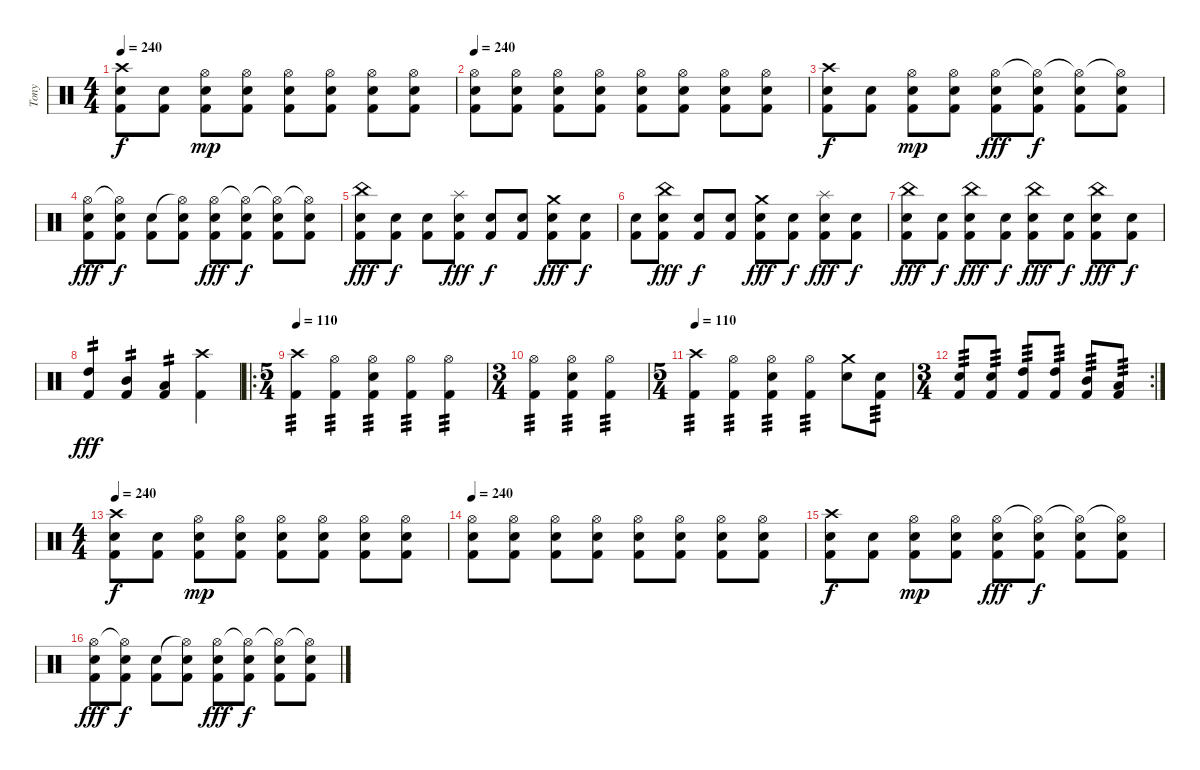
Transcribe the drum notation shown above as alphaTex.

\track ("Tony" "Tony") {instrument percussion}
\staff {score}
\articulation defaults
\ts (4 4)
\tempo 240
\clef neutral
\ks c
("Crash high (hit)" "Snare (hit) 2" "Kick (hit) 2").8{dy f} ("Snare (hit) 2" "Kick (hit) 2").8 ("Hi-Hat (open)" "Snare (hit) 2" "Kick (hit) 2").8{dy mp} ("Hi-Hat (open)" "Snare (hit) 2" "Kick (hit) 2").8 ("Hi-Hat (open)" "Snare (hit) 2" "Kick (hit) 2").8 ("Hi-Hat (open)" "Snare (hit) 2" "Kick (hit) 2").8 ("Hi-Hat (open)" "Snare (hit) 2" "Kick (hit) 2").8 ("Hi-Hat (open)" "Snare (hit) 2" "Kick (hit) 2").8 |
\tempo 240
("Hi-Hat (open)" "Snare (hit) 2" "Kick (hit) 2").8 ("Hi-Hat (open)" "Snare (hit) 2" "Kick (hit) 2").8 ("Hi-Hat (open)" "Snare (hit) 2" "Kick (hit) 2").8 ("Hi-Hat (open)" "Snare (hit) 2" "Kick (hit) 2").8 ("Hi-Hat (open)" "Snare (hit) 2" "Kick (hit) 2").8 ("Hi-Hat (open)" "Snare (hit) 2" "Kick (hit) 2").8 ("Hi-Hat (open)" "Snare (hit) 2" "Kick (hit) 2").8 ("Hi-Hat (open)" "Snare (hit) 2" "Kick (hit) 2").8 |
("Crash high (hit)" "Snare (hit) 2" "Kick (hit) 2").8{dy f} ("Snare (hit) 2" "Kick (hit) 2").8 ("Hi-Hat (open)" "Snare (hit) 2" "Kick (hit) 2").8{dy mp} ("Hi-Hat (open)" "Snare (hit) 2" "Kick (hit) 2").8 ("Hi-Hat (open)" "Snare (hit) 2" "Kick (hit) 2").8{dy fff} ("Hi-Hat (open)"{t} "Snare (hit) 2" "Kick (hit) 2").8{dy f} ("Hi-Hat (open)"{t} "Snare (hit) 2" "Kick (hit) 2").8 ("Hi-Hat (open)"{t} "Snare (hit) 2" "Kick (hit) 2").8 |
("Hi-Hat (open)" "Snare (hit) 2" "Kick (hit) 2").8{dy fff} ("Hi-Hat (open)"{t} "Snare (hit) 2" "Kick (hit) 2").8{dy f} ("Snare (hit) 2" "Kick (hit) 2").8 ("Hi-Hat (open)"{t} "Snare (hit) 2" "Kick (hit) 2").8 ("Hi-Hat (open)" "Snare (hit) 2" "Kick (hit) 2").8{dy fff} ("Hi-Hat (open)"{t} "Snare (hit) 2" "Kick (hit) 2").8{dy f} ("Hi-Hat (open)"{t} "Snare (hit) 2" "Kick (hit) 2").8 ("Hi-Hat (open)"{t} "Snare (hit) 2" "Kick (hit) 2").8 |
("China (hit)" "Snare (hit) 2" "Kick (hit) 2").8{dy fff} ("Snare (hit) 2" "Kick (hit) 2").8{dy f} ("Snare (hit) 2" "Kick (hit) 2").8 ("Splash (hit)" "Snare (hit) 2" "Kick (hit) 2").8{dy fff} ("Snare (hit) 2" "Kick (hit) 2").8{dy f} ("Snare (hit) 2" "Kick (hit) 2").8 ("Crash medium (hit)" "Snare (hit) 2" "Kick (hit) 2").8{dy fff} ("Snare (hit) 2" "Kick (hit) 2").8{dy f} |
("Snare (hit) 2" "Kick (hit) 2").8 ("China (hit)" "Snare (hit) 2" "Kick (hit) 2").8{dy fff} ("Snare (hit) 2" "Kick (hit) 2").8{dy f} ("Snare (hit) 2" "Kick (hit) 2").8 ("Crash medium (hit)" "Snare (hit) 2" "Kick (hit) 2").8{dy fff} ("Snare (hit) 2" "Kick (hit) 2").8{dy f} ("Splash (hit)" "Snare (hit) 2" "Kick (hit) 2").8{dy fff} ("Snare (hit) 2" "Kick (hit) 2").8{dy f} |
("China (hit)" "Snare (hit) 2" "Kick (hit) 2").8{dy fff} ("Snare (hit) 2" "Kick (hit) 2").8{dy f} ("China (hit)" "Snare (hit) 2" "Kick (hit) 2").8{dy fff} ("Snare (hit) 2" "Kick (hit) 2").8{dy f} ("China (hit)" "Snare (hit) 2" "Kick (hit) 2").8{dy fff} ("Snare (hit) 2" "Kick (hit) 2").8{dy f} ("China (hit)" "Snare (hit) 2" "Kick (hit) 2").8{dy fff} ("Snare (hit) 2" "Kick (hit) 2").8{dy f} |
("High Tom (hit)" "Kick (hit) 2").4{tp 2 dy fff} ("Mid Tom (hit)" "Kick (hit) 2").4{tp 2} ("Low Tom (hit)" "Kick (hit) 2").4{tp 2} ("Crash high (hit)" "Kick (hit) 2").4 |
\ro
\ts (5 4)
\tempo 110
("Crash high (hit)" "Kick (hit) 2").4{tp 3} ("Hi-Hat (open)" "Kick (hit) 2").4{tp 3} ("Hi-Hat (open)" "Snare (hit) 2" "Kick (hit) 2").4{tp 3} ("Hi-Hat (open)" "Kick (hit) 2").4{tp 3} ("Hi-Hat (open)" "Kick (hit) 2").4{tp 3} |
\ts (3 4)
("Hi-Hat (open)" "Kick (hit) 2").4{tp 3} ("Hi-Hat (open)" "Snare (hit) 2" "Kick (hit) 2").4{tp 3} ("Hi-Hat (open)" "Kick (hit) 2").4{tp 3} |
\ts (5 4)
\tempo 110
("Crash high (hit)" "Kick (hit) 2").4{tp 3} ("Hi-Hat (open)" "Kick (hit) 2").4{tp 3} ("Hi-Hat (open)" "Snare (hit) 2" "Kick (hit) 2").4{tp 3} ("Hi-Hat (open)" "Kick (hit) 2").4{tp 3} ("Crash medium (hit)" "Snare (hit) 2").8 ("Snare (hit) 2" "Kick (hit) 2").8{tp 3} |
\rc 2
\ts (3 4)
("Snare (hit) 2" "Kick (hit) 2").8{tp 3} ("Snare (hit) 2" "Kick (hit) 2").8{tp 3} ("High Tom (hit)" "Kick (hit) 2").8{tp 3} ("High Tom (hit)" "Kick (hit) 2").8{tp 3} ("Mid Tom (hit)" "Kick (hit) 2").8{tp 3} ("Low Tom (hit)" "Kick (hit) 2").8{tp 3} |
\ts (4 4)
\tempo 240
("Crash high (hit)" "Snare (hit) 2" "Kick (hit) 2").8{dy f} ("Snare (hit) 2" "Kick (hit) 2").8 ("Hi-Hat (open)" "Snare (hit) 2" "Kick (hit) 2").8{dy mp} ("Hi-Hat (open)" "Snare (hit) 2" "Kick (hit) 2").8 ("Hi-Hat (open)" "Snare (hit) 2" "Kick (hit) 2").8 ("Hi-Hat (open)" "Snare (hit) 2" "Kick (hit) 2").8 ("Hi-Hat (open)" "Snare (hit) 2" "Kick (hit) 2").8 ("Hi-Hat (open)" "Snare (hit) 2" "Kick (hit) 2").8 |
\tempo 240
("Hi-Hat (open)" "Snare (hit) 2" "Kick (hit) 2").8 ("Hi-Hat (open)" "Snare (hit) 2" "Kick (hit) 2").8 ("Hi-Hat (open)" "Snare (hit) 2" "Kick (hit) 2").8 ("Hi-Hat (open)" "Snare (hit) 2" "Kick (hit) 2").8 ("Hi-Hat (open)" "Snare (hit) 2" "Kick (hit) 2").8 ("Hi-Hat (open)" "Snare (hit) 2" "Kick (hit) 2").8 ("Hi-Hat (open)" "Snare (hit) 2" "Kick (hit) 2").8 ("Hi-Hat (open)" "Snare (hit) 2" "Kick (hit) 2").8 |
("Crash high (hit)" "Snare (hit) 2" "Kick (hit) 2").8{dy f} ("Snare (hit) 2" "Kick (hit) 2").8 ("Hi-Hat (open)" "Snare (hit) 2" "Kick (hit) 2").8{dy mp} ("Hi-Hat (open)" "Snare (hit) 2" "Kick (hit) 2").8 ("Hi-Hat (open)" "Snare (hit) 2" "Kick (hit) 2").8{dy fff} ("Hi-Hat (open)"{t} "Snare (hit) 2" "Kick (hit) 2").8{dy f} ("Hi-Hat (open)"{t} "Snare (hit) 2" "Kick (hit) 2").8 ("Hi-Hat (open)"{t} "Snare (hit) 2" "Kick (hit) 2").8 |
("Hi-Hat (open)" "Snare (hit) 2" "Kick (hit) 2").8{dy fff} ("Hi-Hat (open)"{t} "Snare (hit) 2" "Kick (hit) 2").8{dy f} ("Snare (hit) 2" "Kick (hit) 2").8 ("Hi-Hat (open)"{t} "Snare (hit) 2" "Kick (hit) 2").8 ("Hi-Hat (open)" "Snare (hit) 2" "Kick (hit) 2").8{dy fff} ("Hi-Hat (open)"{t} "Snare (hit) 2" "Kick (hit) 2").8{dy f} ("Hi-Hat (open)"{t} "Snare (hit) 2" "Kick (hit) 2").8 ("Hi-Hat (open)"{t} "Snare (hit) 2" "Kick (hit) 2").8
